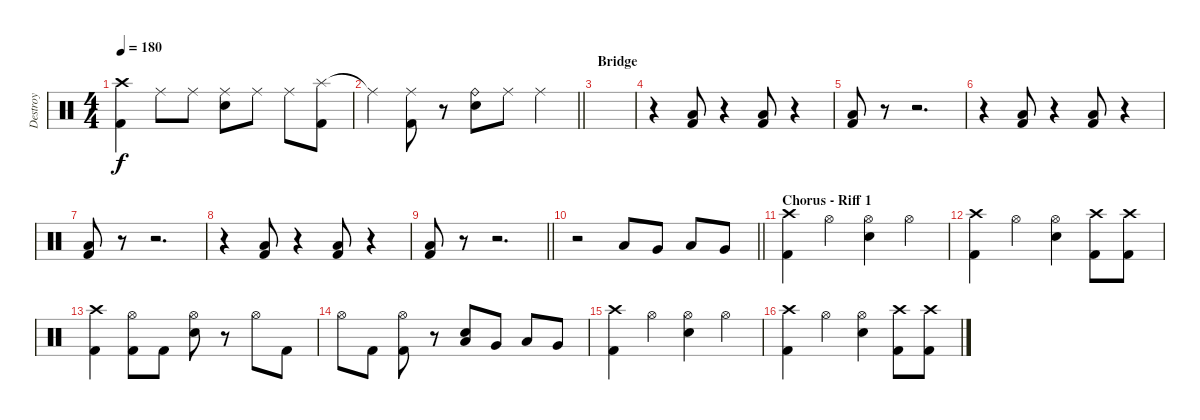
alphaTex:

\track ("Destroy" "Destroy") {instrument percussion}
\staff {score}
\articulation defaults
\ts (4 4)
\tempo 180
\clef neutral
\ks c
("Crash high (hit)" "Kick (hit) 2").4{dy f} "Ride (middle)".8 "Ride (middle)".8 ("Ride (middle)" "Snare (hit) 2").8 "Ride (middle)".8 "Ride (middle)".8 ("Splash (hit)" "Kick (hit) 2").8 |
\barLineRight lightlight "Ride (middle)"{t}.4
("Ride (middle)" "Kick (hit) 2").8 r.8 ("Ride (bell)" "Snare (hit) 2").8 "Ride (middle)".8 "Ride (middle)".4 |
\section ("" "Bridge")
|
r.4 ("Low Floor Tom (hit)" "Kick (hit) 2").8 r.4 ("Low Floor Tom (hit)" "Kick (hit) 2").8 r.4 |
("Low Floor Tom (hit)" "Kick (hit) 2").8 r.8 r.2{d} |
r.4 ("Low Floor Tom (hit)" "Kick (hit) 2").8 r.4 ("Low Floor Tom (hit)" "Kick (hit) 2").8 r.4 |
("Low Floor Tom (hit)" "Kick (hit) 2").8 r.8 r.2{d} |
r.4 ("Low Floor Tom (hit)" "Kick (hit) 2").8 r.4 ("Low Floor Tom (hit)" "Kick (hit) 2").8 r.4 |
\barLineRight lightlight
("Low Floor Tom (hit)" "Kick (hit) 2").8 r.8 r.2{d} |
\section ("" "")
\barLineRight lightlight
r.2 "Low Tom (hit)".8 "Very Low Tom (hit)".8 "Low Floor Tom (hit)".8 "Very Low Tom (hit)".8 |
\section ("" "Chorus - Riff 1")
("Crash high (hit)" "Kick (hit) 2").4 "Hi-Hat (open)".4 ("Hi-Hat (open)" "Snare (hit) 2").4 "Hi-Hat (open)".4 |
("Crash high (hit)" "Kick (hit) 2").4 "Hi-Hat (open)".4 ("Hi-Hat (open)" "Snare (hit) 2").4 ("Crash high (hit)" "Kick (hit) 2").8 ("Crash high (hit)" "Kick (hit) 2").8 |
("Crash high (hit)" "Kick (hit) 2").4 ("Hi-Hat (open)" "Kick (hit) 2").8 "Kick (hit) 2".8 ("Hi-Hat (open)" "Snare (hit) 2").8 r.8 "Hi-Hat (open)".8 "Kick (hit) 2".8 |
"Hi-Hat (open)".8 "Kick (hit) 2".8 ("Hi-Hat (open)" "Kick (hit) 2").8 r.8 ("Low Tom (hit)" "Snare (hit) 2").8 "Very Low Tom (hit)".8 "Low Floor Tom (hit)".8 "Very Low Tom (hit)".8 |
("Crash high (hit)" "Kick (hit) 2").4 "Hi-Hat (open)".4 ("Hi-Hat (open)" "Snare (hit) 2").4 "Hi-Hat (open)".4 |
("Crash high (hit)" "Kick (hit) 2").4 "Hi-Hat (open)".4 ("Hi-Hat (open)" "Snare (hit) 2").4 ("Crash high (hit)" "Kick (hit) 2").8 ("Crash high (hit)" "Kick (hit) 2").8
